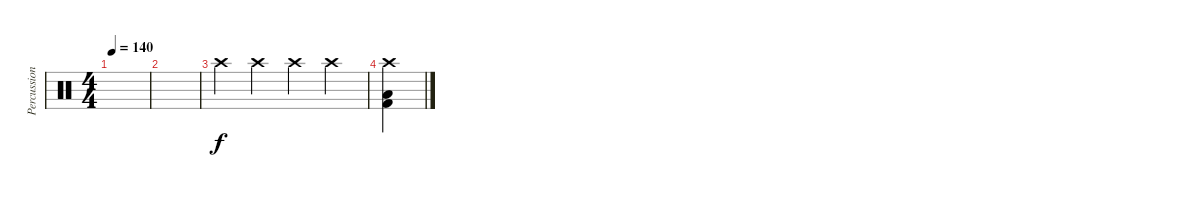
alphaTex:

\track ("Percussions" "Percussion") {instrument percussion}
\staff {score}
\articulation defaults
\ts (4 4)
\tempo 140
\clef neutral
\ks c
|
|
"Crash high (hit)".4 "Crash high (hit)".4 "Crash high (hit)".4 "Crash high (hit)".4 |
("Crash high (hit)" "Low Tom (hit)" "Kick (hit) 2").4
